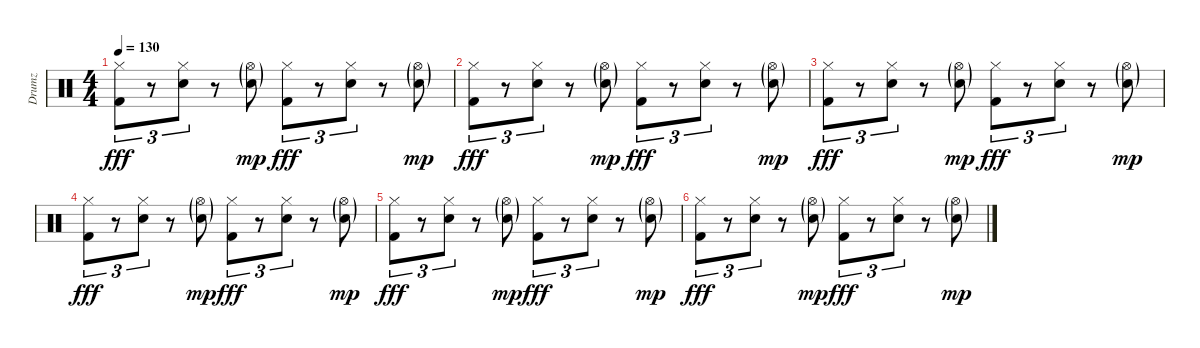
\track ("Drumz" "Drumz") {instrument percussion}
\staff {score}
\articulation defaults
\ts (4 4)
\tempo 130
\clef neutral
\ks c
("Hi-Hat (closed)" "Kick (hit) 2").8{tu (3 2) dy fff} r.8{tu (3 2)} ("Hi-Hat (closed)" "Snare (hit) 2").8{tu (3 2)} r.8 ("Hi-Hat (open)"{g} "Snare (hit) 2"{g}).8{dy mp} ("Hi-Hat (closed)" "Kick (hit) 2").8{tu (3 2) dy fff} r.8{tu (3 2)} ("Hi-Hat (closed)" "Snare (hit) 2").8{tu (3 2)} r.8 ("Hi-Hat (open)"{g} "Snare (hit) 2"{g}).8{dy mp} |
("Hi-Hat (closed)" "Kick (hit) 2").8{tu (3 2) dy fff} r.8{tu (3 2)} ("Hi-Hat (closed)" "Snare (hit) 2").8{tu (3 2)} r.8 ("Hi-Hat (open)"{g} "Snare (hit) 2"{g}).8{dy mp} ("Hi-Hat (closed)" "Kick (hit) 2").8{tu (3 2) dy fff} r.8{tu (3 2)} ("Hi-Hat (closed)" "Snare (hit) 2").8{tu (3 2)} r.8 ("Hi-Hat (open)"{g} "Snare (hit) 2"{g}).8{dy mp} |
("Hi-Hat (closed)" "Kick (hit) 2").8{tu (3 2) dy fff} r.8{tu (3 2)} ("Hi-Hat (closed)" "Snare (hit) 2").8{tu (3 2)} r.8 ("Hi-Hat (open)"{g} "Snare (hit) 2"{g}).8{dy mp} ("Hi-Hat (closed)" "Kick (hit) 2").8{tu (3 2) dy fff} r.8{tu (3 2)} ("Hi-Hat (closed)" "Snare (hit) 2").8{tu (3 2)} r.8 ("Hi-Hat (open)"{g} "Snare (hit) 2"{g}).8{dy mp} |
("Hi-Hat (closed)" "Kick (hit) 2").8{tu (3 2) dy fff} r.8{tu (3 2)} ("Hi-Hat (closed)" "Snare (hit) 2").8{tu (3 2)} r.8 ("Hi-Hat (open)"{g} "Snare (hit) 2"{g}).8{dy mp} ("Hi-Hat (closed)" "Kick (hit) 2").8{tu (3 2) dy fff} r.8{tu (3 2)} ("Hi-Hat (closed)" "Snare (hit) 2").8{tu (3 2)} r.8 ("Hi-Hat (open)"{g} "Snare (hit) 2"{g}).8{dy mp} |
("Hi-Hat (closed)" "Kick (hit) 2").8{tu (3 2) dy fff} r.8{tu (3 2)} ("Hi-Hat (closed)" "Snare (hit) 2").8{tu (3 2)} r.8 ("Hi-Hat (open)"{g} "Snare (hit) 2"{g}).8{dy mp} ("Hi-Hat (closed)" "Kick (hit) 2").8{tu (3 2) dy fff} r.8{tu (3 2)} ("Hi-Hat (closed)" "Snare (hit) 2").8{tu (3 2)} r.8 ("Hi-Hat (open)"{g} "Snare (hit) 2"{g}).8{dy mp} |
("Hi-Hat (closed)" "Kick (hit) 2").8{tu (3 2) dy fff} r.8{tu (3 2)} ("Hi-Hat (closed)" "Snare (hit) 2").8{tu (3 2)} r.8 ("Hi-Hat (open)"{g} "Snare (hit) 2"{g}).8{dy mp} ("Hi-Hat (closed)" "Kick (hit) 2").8{tu (3 2) dy fff} r.8{tu (3 2)} ("Hi-Hat (closed)" "Snare (hit) 2").8{tu (3 2)} r.8 ("Hi-Hat (open)"{g} "Snare (hit) 2"{g}).8{dy mp}
